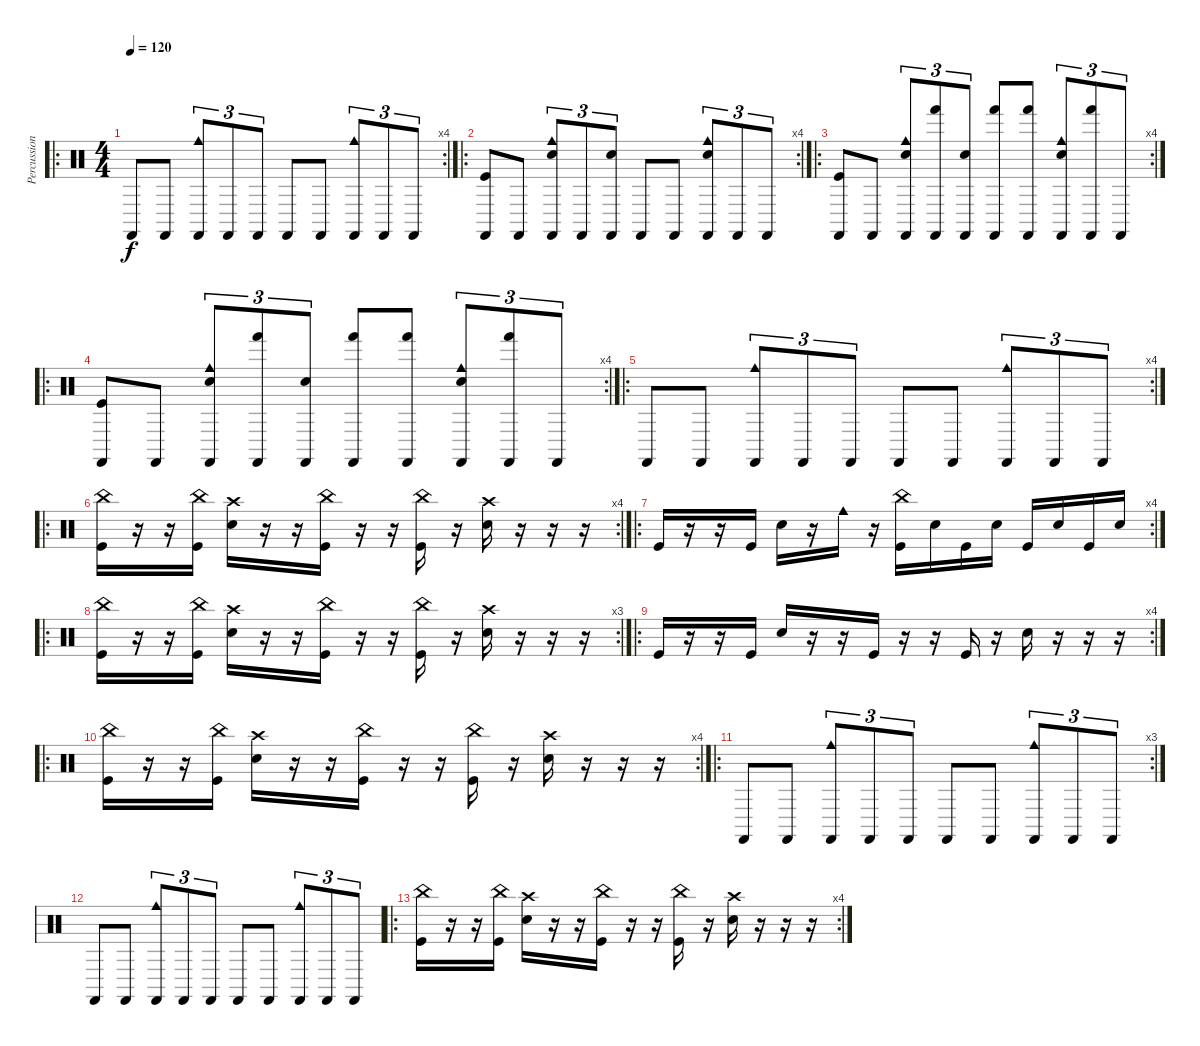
\track ("Percussions" "Percussion") {instrument percussion}
\staff {score}
\articulation defaults
\ro
\rc 4
\ts (4 4)
\tempo 120
\clef neutral
\ks c "Castanets (hit)".8{dy f} "Castanets (hit)".8
("Cowbell medium (hit)" "Castanets (hit)").8{tu (3 2)} "Castanets (hit)".8{tu (3 2)} "Castanets (hit)".8{tu (3 2)} "Castanets (hit)".8 "Castanets (hit)".8 ("Cowbell medium (hit)" "Castanets (hit)").8{tu (3 2)} "Castanets (hit)".8{tu (3 2)} "Castanets (hit)".8{tu (3 2)} |
\ro
\rc 4
("Castanets (hit)" "Kick (hit)").8 "Castanets (hit)".8 ("Electric Snare (hit)" "Cowbell medium (hit)" "Castanets (hit)").8{tu (3 2)} "Castanets (hit)".8{tu (3 2)} ("Electric Snare (hit)" "Castanets (hit)").8{tu (3 2)} "Castanets (hit)".8 "Castanets (hit)".8 ("Electric Snare (hit)" "Cowbell medium (hit)" "Castanets (hit)").8{tu (3 2)} "Castanets (hit)".8{tu (3 2)} "Castanets (hit)".8{tu (3 2)} |
\ro
\rc 4
("Castanets (hit)" "Kick (hit)").8 "Castanets (hit)".8 ("Electric Snare (hit)" "Cowbell medium (hit)" "Castanets (hit)").8{tu (3 2)} ("Hand (hit)" "Castanets (hit)").8{tu (3 2)} ("Electric Snare (hit)" "Castanets (hit)").8{tu (3 2)} ("Hand (hit)" "Castanets (hit)").8 ("Hand (hit)" "Castanets (hit)").8 ("Electric Snare (hit)" "Cowbell medium (hit)" "Castanets (hit)").8{tu (3 2)} ("Hand (hit)" "Castanets (hit)").8{tu (3 2)} "Castanets (hit)".8{tu (3 2)} |
\ro
\rc 4
("Castanets (hit)" "Kick (hit)").8 "Castanets (hit)".8 ("Electric Snare (hit)" "Cowbell medium (hit)" "Castanets (hit)").8{tu (3 2)} ("Hand (hit)" "Castanets (hit)").8{tu (3 2)} ("Electric Snare (hit)" "Castanets (hit)").8{tu (3 2)} ("Hand (hit)" "Castanets (hit)").8 ("Hand (hit)" "Castanets (hit)").8 ("Electric Snare (hit)" "Cowbell medium (hit)" "Castanets (hit)").8{tu (3 2)} ("Hand (hit)" "Castanets (hit)").8{tu (3 2)} "Castanets (hit)".8{tu (3 2)} |
\ro
\rc 4 "Castanets (hit)".8 "Castanets (hit)".8
("Cowbell medium (hit)" "Castanets (hit)").8{tu (3 2)} "Castanets (hit)".8{tu (3 2)} "Castanets (hit)".8{tu (3 2)} "Castanets (hit)".8 "Castanets (hit)".8 ("Cowbell medium (hit)" "Castanets (hit)").8{tu (3 2)} "Castanets (hit)".8{tu (3 2)} "Castanets (hit)".8{tu (3 2)} |
\ro
\rc 4
("China (hit)" "Kick (hit)").16 r.16 r.16 ("China (hit)" "Kick (hit)").16 ("Electric Snare (hit)" "Crash high (hit)").16 r.16 r.16 ("China (hit)" "Kick (hit)").16 r.16 r.16 ("China (hit)" "Kick (hit)").16 r.16 ("Electric Snare (hit)" "Crash high (hit)").16 r.16 r.16 r.16 |
\ro
\rc 4 "Kick (hit)".16
r.16 r.16 "Kick (hit)".16 "Electric Snare (hit)".16 r.16 "Cowbell medium (hit)".16 r.16 ("China (hit)" "Kick (hit)").16 "Electric Snare (hit)".16 "Kick (hit)".16 "Electric Snare (hit)".16 "Kick (hit)".16 "Electric Snare (hit)".16 "Kick (hit)".16 "Electric Snare (hit)".16 |
\ro
\rc 3
("China (hit)" "Kick (hit)").16 r.16 r.16 ("China (hit)" "Kick (hit)").16 ("Electric Snare (hit)" "Crash high (hit)").16 r.16 r.16 ("China (hit)" "Kick (hit)").16 r.16 r.16 ("China (hit)" "Kick (hit)").16 r.16 ("Electric Snare (hit)" "Crash high (hit)").16 r.16 r.16 r.16 |
\ro
\rc 4 "Kick (hit)".16
r.16 r.16 "Kick (hit)".16 "Electric Snare (hit)".16 r.16 r.16 "Kick (hit)".16 r.16 r.16 "Kick (hit)".16 r.16 "Electric Snare (hit)".16 r.16 r.16 r.16 |
\ro
\rc 4
("China (hit)" "Kick (hit)").16 r.16 r.16 ("China (hit)" "Kick (hit)").16 ("Electric Snare (hit)" "Crash high (hit)").16 r.16 r.16 ("China (hit)" "Kick (hit)").16 r.16 r.16 ("China (hit)" "Kick (hit)").16 r.16 ("Electric Snare (hit)" "Crash high (hit)").16 r.16 r.16 r.16 |
\ro
\rc 3 "Castanets (hit)".8 "Castanets (hit)".8
("Cowbell medium (hit)" "Castanets (hit)").8{tu (3 2)} "Castanets (hit)".8{tu (3 2)} "Castanets (hit)".8{tu (3 2)} "Castanets (hit)".8 "Castanets (hit)".8 ("Cowbell medium (hit)" "Castanets (hit)").8{tu (3 2)} "Castanets (hit)".8{tu (3 2)} "Castanets (hit)".8{tu (3 2)} |
"Castanets (hit)".8 "Castanets (hit)".8 ("Cowbell medium (hit)" "Castanets (hit)").8{tu (3 2)} "Castanets (hit)".8{tu (3 2)} "Castanets (hit)".8{tu (3 2)} "Castanets (hit)".8 "Castanets (hit)".8 ("Cowbell medium (hit)" "Castanets (hit)").8{tu (3 2)} "Castanets (hit)".8{tu (3 2)} "Castanets (hit)".8{tu (3 2)} |
\ro
\rc 4
("China (hit)" "Kick (hit)").16 r.16 r.16 ("China (hit)" "Kick (hit)").16 ("Electric Snare (hit)" "Crash high (hit)").16 r.16 r.16 ("China (hit)" "Kick (hit)").16 r.16 r.16 ("China (hit)" "Kick (hit)").16 r.16 ("Electric Snare (hit)" "Crash high (hit)").16 r.16 r.16 r.16
